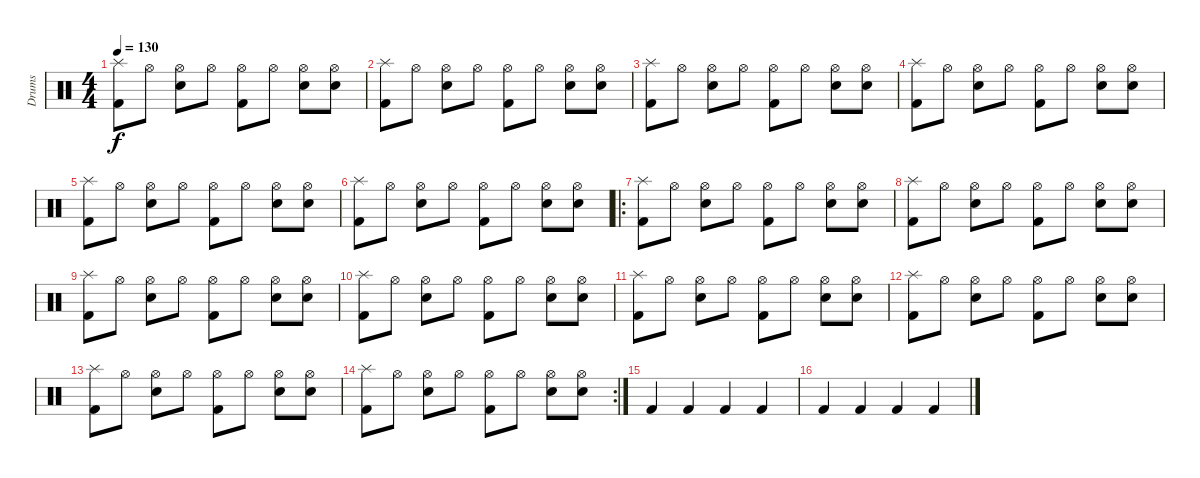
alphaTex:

\track ("Drums" "Drums") {instrument percussion}
\staff {score}
\articulation defaults
\ts (4 4)
\tempo 130
\clef neutral
\ks c
("Splash (hit)" "Kick (hit) 2").8{dy f} "Hi-Hat (open)".8 ("Hi-Hat (open)" "Snare (hit) 2").8 "Hi-Hat (open)".8 ("Hi-Hat (open)" "Kick (hit) 2").8 "Hi-Hat (open)".8 ("Hi-Hat (open)" "Snare (hit) 2").8 ("Hi-Hat (open)" "Snare (hit) 2").8 |
("Splash (hit)" "Kick (hit) 2").8 "Hi-Hat (open)".8 ("Hi-Hat (open)" "Snare (hit) 2").8 "Hi-Hat (open)".8 ("Hi-Hat (open)" "Kick (hit) 2").8 "Hi-Hat (open)".8 ("Hi-Hat (open)" "Snare (hit) 2").8 ("Hi-Hat (open)" "Snare (hit) 2").8 |
("Splash (hit)" "Kick (hit) 2").8 "Hi-Hat (open)".8 ("Hi-Hat (open)" "Snare (hit) 2").8 "Hi-Hat (open)".8 ("Hi-Hat (open)" "Kick (hit) 2").8 "Hi-Hat (open)".8 ("Hi-Hat (open)" "Snare (hit) 2").8 ("Hi-Hat (open)" "Snare (hit) 2").8 |
("Splash (hit)" "Kick (hit) 2").8 "Hi-Hat (open)".8 ("Hi-Hat (open)" "Snare (hit) 2").8 "Hi-Hat (open)".8 ("Hi-Hat (open)" "Kick (hit) 2").8 "Hi-Hat (open)".8 ("Hi-Hat (open)" "Snare (hit) 2").8 ("Hi-Hat (open)" "Snare (hit) 2").8 |
("Splash (hit)" "Kick (hit) 2").8 "Hi-Hat (open)".8 ("Hi-Hat (open)" "Snare (hit) 2").8 "Hi-Hat (open)".8 ("Hi-Hat (open)" "Kick (hit) 2").8 "Hi-Hat (open)".8 ("Hi-Hat (open)" "Snare (hit) 2").8 ("Hi-Hat (open)" "Snare (hit) 2").8 |
("Splash (hit)" "Kick (hit) 2").8 "Hi-Hat (open)".8 ("Hi-Hat (open)" "Snare (hit) 2").8 "Hi-Hat (open)".8 ("Hi-Hat (open)" "Kick (hit) 2").8 "Hi-Hat (open)".8 ("Hi-Hat (open)" "Snare (hit) 2").8 ("Hi-Hat (open)" "Snare (hit) 2").8 |
\ro
("Splash (hit)" "Kick (hit) 2").8 "Hi-Hat (open)".8 ("Hi-Hat (open)" "Snare (hit) 2").8 "Hi-Hat (open)".8 ("Hi-Hat (open)" "Kick (hit) 2").8 "Hi-Hat (open)".8 ("Hi-Hat (open)" "Snare (hit) 2").8 ("Hi-Hat (open)" "Snare (hit) 2").8 |
("Splash (hit)" "Kick (hit) 2").8 "Hi-Hat (open)".8 ("Hi-Hat (open)" "Snare (hit) 2").8 "Hi-Hat (open)".8 ("Hi-Hat (open)" "Kick (hit) 2").8 "Hi-Hat (open)".8 ("Hi-Hat (open)" "Snare (hit) 2").8 ("Hi-Hat (open)" "Snare (hit) 2").8 |
("Splash (hit)" "Kick (hit) 2").8 "Hi-Hat (open)".8 ("Hi-Hat (open)" "Snare (hit) 2").8 "Hi-Hat (open)".8 ("Hi-Hat (open)" "Kick (hit) 2").8 "Hi-Hat (open)".8 ("Hi-Hat (open)" "Snare (hit) 2").8 ("Hi-Hat (open)" "Snare (hit) 2").8 |
("Splash (hit)" "Kick (hit) 2").8 "Hi-Hat (open)".8 ("Hi-Hat (open)" "Snare (hit) 2").8 "Hi-Hat (open)".8 ("Hi-Hat (open)" "Kick (hit) 2").8 "Hi-Hat (open)".8 ("Hi-Hat (open)" "Snare (hit) 2").8 ("Hi-Hat (open)" "Snare (hit) 2").8 |
("Splash (hit)" "Kick (hit) 2").8 "Hi-Hat (open)".8 ("Hi-Hat (open)" "Snare (hit) 2").8 "Hi-Hat (open)".8 ("Hi-Hat (open)" "Kick (hit) 2").8 "Hi-Hat (open)".8 ("Hi-Hat (open)" "Snare (hit) 2").8 ("Hi-Hat (open)" "Snare (hit) 2").8 |
("Splash (hit)" "Kick (hit) 2").8 "Hi-Hat (open)".8 ("Hi-Hat (open)" "Snare (hit) 2").8 "Hi-Hat (open)".8 ("Hi-Hat (open)" "Kick (hit) 2").8 "Hi-Hat (open)".8 ("Hi-Hat (open)" "Snare (hit) 2").8 ("Hi-Hat (open)" "Snare (hit) 2").8 |
("Splash (hit)" "Kick (hit) 2").8 "Hi-Hat (open)".8 ("Hi-Hat (open)" "Snare (hit) 2").8 "Hi-Hat (open)".8 ("Hi-Hat (open)" "Kick (hit) 2").8 "Hi-Hat (open)".8 ("Hi-Hat (open)" "Snare (hit) 2").8 ("Hi-Hat (open)" "Snare (hit) 2").8 |
\rc 2
("Splash (hit)" "Kick (hit) 2").8 "Hi-Hat (open)".8 ("Hi-Hat (open)" "Snare (hit) 2").8 "Hi-Hat (open)".8 ("Hi-Hat (open)" "Kick (hit) 2").8 "Hi-Hat (open)".8 ("Hi-Hat (open)" "Snare (hit) 2").8 ("Hi-Hat (open)" "Snare (hit) 2").8 |
"Kick (hit) 2".4 "Kick (hit) 2".4 "Kick (hit) 2".4 "Kick (hit) 2".4 |
"Kick (hit) 2".4 "Kick (hit) 2".4 "Kick (hit) 2".4 "Kick (hit) 2".4
